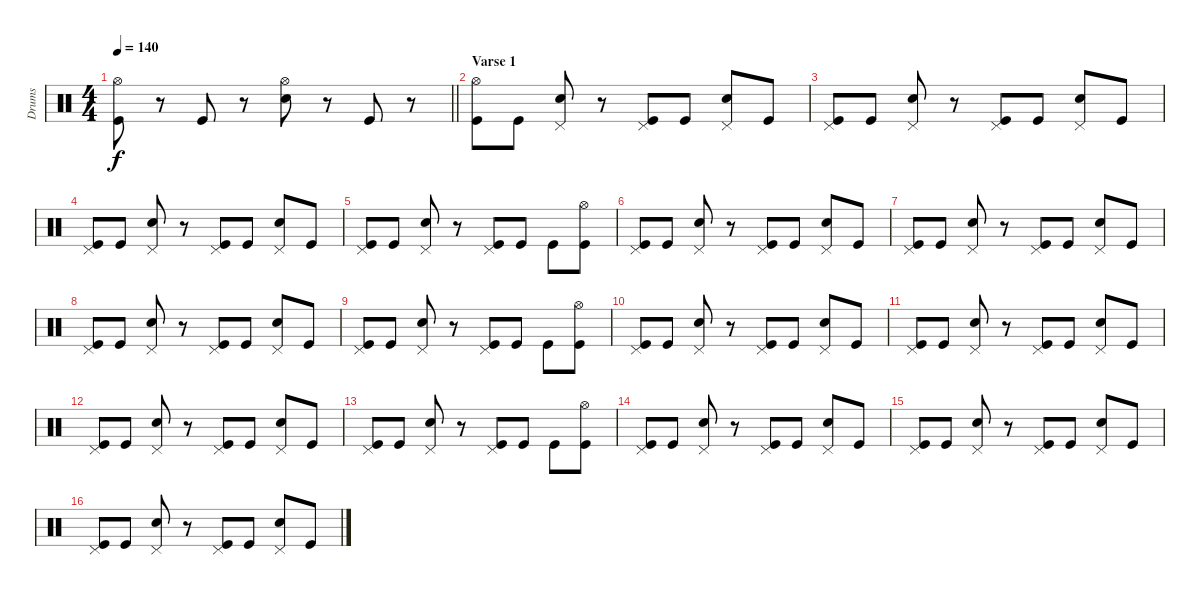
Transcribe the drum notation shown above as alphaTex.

\track ("Drums" "Drums") {instrument percussion}
\staff {score}
\articulation defaults
\ts (4 4)
\tempo 140
\clef neutral
\barLineRight lightlight
\ks c
("Hi-Hat (open)" "Kick (hit)").8{dy f} r.8 "Kick (hit)".8 r.8 ("Hi-Hat (open)" "Electric Snare (hit)").8 r.8 "Kick (hit)".8 r.8 |
\section ("" "Varse 1")
("Hi-Hat (open)" "Kick (hit)").8 "Kick (hit)".8 ("Pedal Hi-Hat (hit)" "Electric Snare (hit)").8 r.8 ("Pedal Hi-Hat (hit)" "Kick (hit)").8 "Kick (hit)".8 ("Pedal Hi-Hat (hit)" "Electric Snare (hit)").8 "Kick (hit)".8 |
("Pedal Hi-Hat (hit)" "Kick (hit)").8 "Kick (hit)".8 ("Pedal Hi-Hat (hit)" "Electric Snare (hit)").8 r.8 ("Pedal Hi-Hat (hit)" "Kick (hit)").8 "Kick (hit)".8 ("Pedal Hi-Hat (hit)" "Electric Snare (hit)").8 "Kick (hit)".8 |
("Pedal Hi-Hat (hit)" "Kick (hit)").8 "Kick (hit)".8 ("Pedal Hi-Hat (hit)" "Electric Snare (hit)").8 r.8 ("Pedal Hi-Hat (hit)" "Kick (hit)").8 "Kick (hit)".8 ("Pedal Hi-Hat (hit)" "Electric Snare (hit)").8 "Kick (hit)".8 |
("Pedal Hi-Hat (hit)" "Kick (hit)").8 "Kick (hit)".8 ("Pedal Hi-Hat (hit)" "Electric Snare (hit)").8 r.8 ("Pedal Hi-Hat (hit)" "Kick (hit)").8 "Kick (hit)".8 "Kick (hit)".8 ("Hi-Hat (open)" "Kick (hit)").8 |
("Pedal Hi-Hat (hit)" "Kick (hit)").8 "Kick (hit)".8 ("Pedal Hi-Hat (hit)" "Electric Snare (hit)").8 r.8 ("Pedal Hi-Hat (hit)" "Kick (hit)").8 "Kick (hit)".8 ("Pedal Hi-Hat (hit)" "Electric Snare (hit)").8 "Kick (hit)".8 |
("Pedal Hi-Hat (hit)" "Kick (hit)").8 "Kick (hit)".8 ("Pedal Hi-Hat (hit)" "Electric Snare (hit)").8 r.8 ("Pedal Hi-Hat (hit)" "Kick (hit)").8 "Kick (hit)".8 ("Pedal Hi-Hat (hit)" "Electric Snare (hit)").8 "Kick (hit)".8 |
("Pedal Hi-Hat (hit)" "Kick (hit)").8 "Kick (hit)".8 ("Pedal Hi-Hat (hit)" "Electric Snare (hit)").8 r.8 ("Pedal Hi-Hat (hit)" "Kick (hit)").8 "Kick (hit)".8 ("Pedal Hi-Hat (hit)" "Electric Snare (hit)").8 "Kick (hit)".8 |
("Pedal Hi-Hat (hit)" "Kick (hit)").8 "Kick (hit)".8 ("Pedal Hi-Hat (hit)" "Electric Snare (hit)").8 r.8 ("Pedal Hi-Hat (hit)" "Kick (hit)").8 "Kick (hit)".8 "Kick (hit)".8 ("Hi-Hat (open)" "Kick (hit)").8 |
("Pedal Hi-Hat (hit)" "Kick (hit)").8 "Kick (hit)".8 ("Pedal Hi-Hat (hit)" "Electric Snare (hit)").8 r.8 ("Pedal Hi-Hat (hit)" "Kick (hit)").8 "Kick (hit)".8 ("Pedal Hi-Hat (hit)" "Electric Snare (hit)").8 "Kick (hit)".8 |
("Pedal Hi-Hat (hit)" "Kick (hit)").8 "Kick (hit)".8 ("Pedal Hi-Hat (hit)" "Electric Snare (hit)").8 r.8 ("Pedal Hi-Hat (hit)" "Kick (hit)").8 "Kick (hit)".8 ("Pedal Hi-Hat (hit)" "Electric Snare (hit)").8 "Kick (hit)".8 |
("Pedal Hi-Hat (hit)" "Kick (hit)").8 "Kick (hit)".8 ("Pedal Hi-Hat (hit)" "Electric Snare (hit)").8 r.8 ("Pedal Hi-Hat (hit)" "Kick (hit)").8 "Kick (hit)".8 ("Pedal Hi-Hat (hit)" "Electric Snare (hit)").8 "Kick (hit)".8 |
("Pedal Hi-Hat (hit)" "Kick (hit)").8 "Kick (hit)".8 ("Pedal Hi-Hat (hit)" "Electric Snare (hit)").8 r.8 ("Pedal Hi-Hat (hit)" "Kick (hit)").8 "Kick (hit)".8 "Kick (hit)".8 ("Hi-Hat (open)" "Kick (hit)").8 |
("Pedal Hi-Hat (hit)" "Kick (hit)").8 "Kick (hit)".8 ("Pedal Hi-Hat (hit)" "Electric Snare (hit)").8 r.8 ("Pedal Hi-Hat (hit)" "Kick (hit)").8 "Kick (hit)".8 ("Pedal Hi-Hat (hit)" "Electric Snare (hit)").8 "Kick (hit)".8 |
("Pedal Hi-Hat (hit)" "Kick (hit)").8 "Kick (hit)".8 ("Pedal Hi-Hat (hit)" "Electric Snare (hit)").8 r.8 ("Pedal Hi-Hat (hit)" "Kick (hit)").8 "Kick (hit)".8 ("Pedal Hi-Hat (hit)" "Electric Snare (hit)").8 "Kick (hit)".8 |
("Pedal Hi-Hat (hit)" "Kick (hit)").8 "Kick (hit)".8 ("Pedal Hi-Hat (hit)" "Electric Snare (hit)").8 r.8 ("Pedal Hi-Hat (hit)" "Kick (hit)").8 "Kick (hit)".8 ("Pedal Hi-Hat (hit)" "Electric Snare (hit)").8 "Kick (hit)".8
